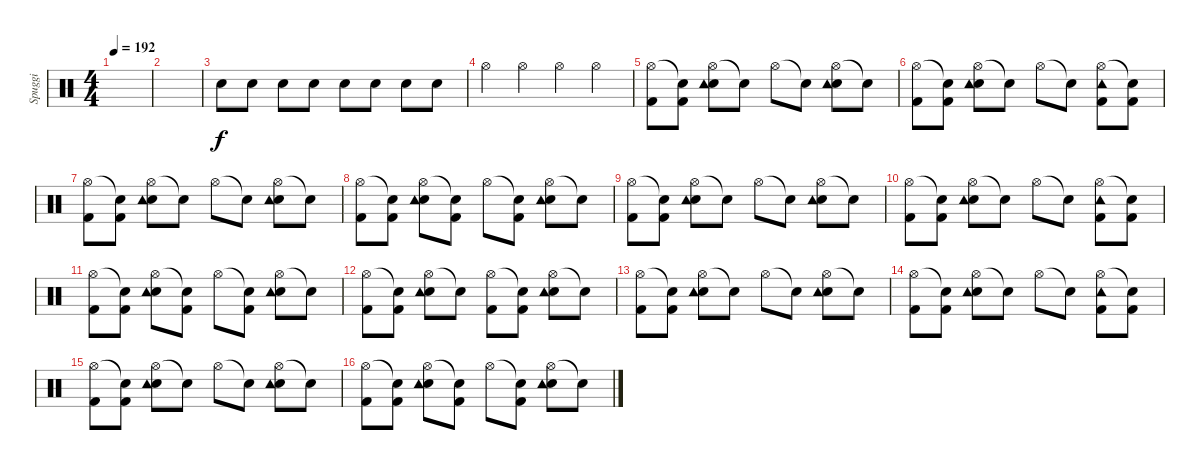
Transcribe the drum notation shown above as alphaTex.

\track ("Spuggi" "Spuggi") {instrument percussion}
\staff {score}
\articulation defaults
\ts (4 4)
\tempo 192
\clef neutral
\ks c
|
|
"Snare (hit) 2".8{dy f} "Snare (hit) 2".8 "Snare (hit) 2".8 "Snare (hit) 2".8 "Snare (hit) 2".8 "Snare (hit) 2".8 "Snare (hit) 2".8 "Snare (hit) 2".8 |
"Hi-Hat (open)".4 "Hi-Hat (open)".4 "Hi-Hat (open)".4 "Hi-Hat (open)".4 |
("Hi-Hat (open)" "Kick (hit) 2").8 ("Snare (hit)"{t} "Kick (hit) 2").8 ("Hi-Hat (open)" "Electric Snare (hit)" "Tambourine (hit)").8 "Snare (hit)"{t}.8 "Hi-Hat (open)".8 "Snare (hit)"{t}.8 ("Hi-Hat (open)" "Electric Snare (hit)" "Tambourine (hit)").8 "Snare (hit)"{t}.8 |
("Hi-Hat (open)" "Kick (hit) 2").8 ("Snare (hit)"{t} "Kick (hit) 2").8 ("Hi-Hat (open)" "Electric Snare (hit)" "Tambourine (hit)").8 "Snare (hit)"{t}.8 "Hi-Hat (open)".8 "Snare (hit)"{t}.8 ("Hi-Hat (open)" "Kick (hit) 2" "Tambourine (hit)").8 ("Snare (hit)"{t} "Kick (hit) 2").8 |
("Hi-Hat (open)" "Kick (hit) 2").8 ("Snare (hit)"{t} "Kick (hit) 2").8 ("Hi-Hat (open)" "Electric Snare (hit)" "Tambourine (hit)").8 "Snare (hit)"{t}.8 "Hi-Hat (open)".8 "Snare (hit)"{t}.8 ("Hi-Hat (open)" "Electric Snare (hit)" "Tambourine (hit)").8 "Snare (hit)"{t}.8 |
("Hi-Hat (open)" "Kick (hit) 2").8 ("Snare (hit)"{t} "Kick (hit) 2").8 ("Hi-Hat (open)" "Electric Snare (hit)" "Tambourine (hit)").8 ("Snare (hit)"{t} "Kick (hit) 2").8 "Hi-Hat (open)".8 ("Snare (hit)"{t} "Kick (hit) 2").8 ("Hi-Hat (open)" "Electric Snare (hit)" "Tambourine (hit)").8 "Snare (hit)"{t}.8 |
("Hi-Hat (open)" "Kick (hit) 2").8 ("Snare (hit)"{t} "Kick (hit) 2").8 ("Hi-Hat (open)" "Electric Snare (hit)" "Tambourine (hit)").8 "Snare (hit)"{t}.8 "Hi-Hat (open)".8 "Snare (hit)"{t}.8 ("Hi-Hat (open)" "Electric Snare (hit)" "Tambourine (hit)").8 "Snare (hit)"{t}.8 |
("Hi-Hat (open)" "Kick (hit) 2").8 ("Snare (hit)"{t} "Kick (hit) 2").8 ("Hi-Hat (open)" "Electric Snare (hit)" "Tambourine (hit)").8 "Snare (hit)"{t}.8 "Hi-Hat (open)".8 "Snare (hit)"{t}.8 ("Hi-Hat (open)" "Kick (hit) 2" "Tambourine (hit)").8 ("Snare (hit)"{t} "Kick (hit) 2").8 |
("Hi-Hat (open)" "Kick (hit) 2").8 ("Snare (hit)"{t} "Kick (hit) 2").8 ("Hi-Hat (open)" "Electric Snare (hit)" "Tambourine (hit)").8 ("Snare (hit)"{t} "Kick (hit) 2").8 "Hi-Hat (open)".8 ("Snare (hit)"{t} "Kick (hit) 2").8 ("Hi-Hat (open)" "Electric Snare (hit)" "Tambourine (hit)").8 "Snare (hit)"{t}.8 |
("Hi-Hat (open)" "Kick (hit) 2").8 ("Snare (hit)"{t} "Kick (hit) 2").8 ("Hi-Hat (open)" "Electric Snare (hit)" "Tambourine (hit)").8 "Snare (hit)"{t}.8 ("Hi-Hat (open)" "Kick (hit) 2").8 ("Snare (hit)"{t} "Kick (hit) 2").8 ("Hi-Hat (open)" "Electric Snare (hit)" "Tambourine (hit)").8 "Snare (hit)"{t}.8 |
("Hi-Hat (open)" "Kick (hit) 2").8 ("Snare (hit)"{t} "Kick (hit) 2").8 ("Hi-Hat (open)" "Electric Snare (hit)" "Tambourine (hit)").8 "Snare (hit)"{t}.8 "Hi-Hat (open)".8 "Snare (hit)"{t}.8 ("Hi-Hat (open)" "Electric Snare (hit)" "Tambourine (hit)").8 "Snare (hit)"{t}.8 |
("Hi-Hat (open)" "Kick (hit) 2").8 ("Snare (hit)"{t} "Kick (hit) 2").8 ("Hi-Hat (open)" "Electric Snare (hit)" "Tambourine (hit)").8 "Snare (hit)"{t}.8 "Hi-Hat (open)".8 "Snare (hit)"{t}.8 ("Hi-Hat (open)" "Kick (hit) 2" "Tambourine (hit)").8 ("Snare (hit)"{t} "Kick (hit) 2").8 |
("Hi-Hat (open)" "Kick (hit) 2").8 ("Snare (hit)"{t} "Kick (hit) 2").8 ("Hi-Hat (open)" "Electric Snare (hit)" "Tambourine (hit)").8 "Snare (hit)"{t}.8 "Hi-Hat (open)".8 "Snare (hit)"{t}.8 ("Hi-Hat (open)" "Electric Snare (hit)" "Tambourine (hit)").8 "Snare (hit)"{t}.8 |
("Hi-Hat (open)" "Kick (hit) 2").8 ("Snare (hit)"{t} "Kick (hit) 2").8 ("Hi-Hat (open)" "Electric Snare (hit)" "Tambourine (hit)").8 ("Snare (hit)"{t} "Kick (hit) 2").8 "Hi-Hat (open)".8 ("Snare (hit)"{t} "Kick (hit) 2").8 ("Hi-Hat (open)" "Electric Snare (hit)" "Tambourine (hit)").8 "Snare (hit)"{t}.8
